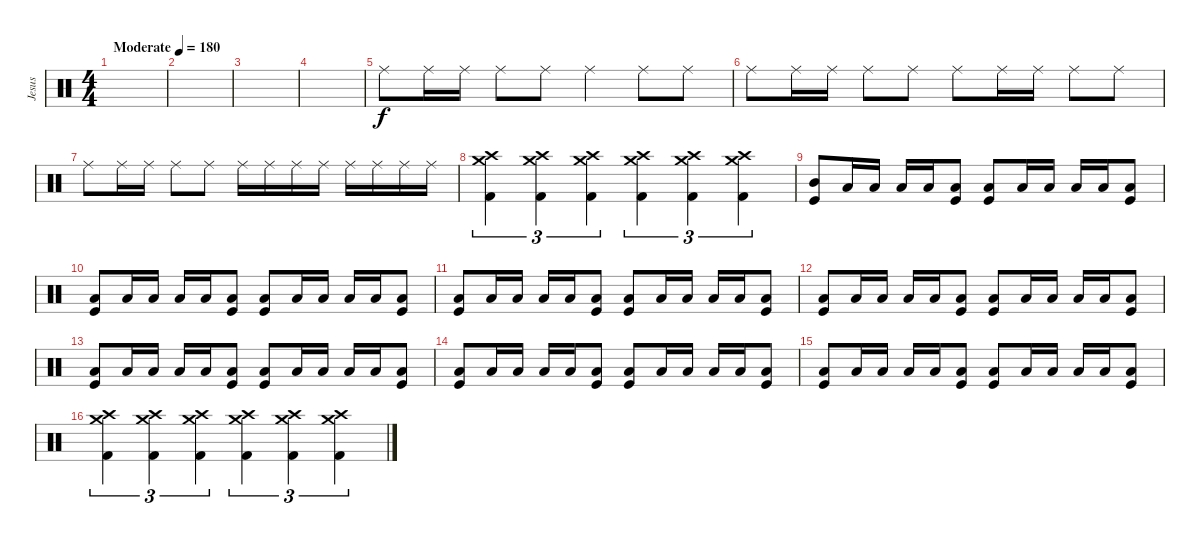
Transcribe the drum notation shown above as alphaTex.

\track ("Jesus" "Jesus") {instrument percussion}
\staff {score}
\articulation defaults
\ts (4 4)
\tempo (180 "Moderate")
\clef neutral
\ks c
|
|
|
|
"Ride (middle)".8 "Ride (middle)".16 "Ride (middle)".16 "Ride (middle)".8 "Ride (middle)".8 "Ride (middle)".4 "Ride (middle)".8 "Ride (middle)".8 |
"Ride (middle)".8 "Ride (middle)".16 "Ride (middle)".16 "Ride (middle)".8 "Ride (middle)".8 "Ride (middle)".8 "Ride (middle)".16 "Ride (middle)".16 "Ride (middle)".8 "Ride (middle)".8 |
"Ride (middle)".8 "Ride (middle)".16 "Ride (middle)".16 "Ride (middle)".8 "Ride (middle)".8 "Ride (middle)".16 "Ride (middle)".16 "Ride (middle)".16 "Ride (middle)".16 "Ride (middle)".16 "Ride (middle)".16 "Ride (middle)".16 "Ride (middle)".16 |
("Crash high (hit)" "Crash medium (hit)" "Kick (hit) 2").4{tu (3 2)} ("Crash high (hit)" "Crash medium (hit)" "Kick (hit) 2").4{tu (3 2)} ("Crash high (hit)" "Crash medium (hit)" "Kick (hit) 2").4{tu (3 2)} ("Crash high (hit)" "Crash medium (hit)" "Kick (hit) 2").4{tu (3 2)} ("Crash high (hit)" "Crash medium (hit)" "Kick (hit) 2").4{tu (3 2)} ("Crash high (hit)" "Crash medium (hit)" "Kick (hit) 2").4{tu (3 2)} |
("Mid Tom (hit)" "Kick (hit)").8 "Low Tom (hit)".16 "Low Tom (hit)".16 "Low Tom (hit)".16 "Low Tom (hit)".16 ("Low Tom (hit)" "Kick (hit)").8 ("Low Tom (hit)" "Kick (hit)").8 "Low Tom (hit)".16 "Low Tom (hit)".16 "Low Tom (hit)".16 "Low Tom (hit)".16 ("Low Tom (hit)" "Kick (hit)").8 |
("Low Tom (hit)" "Kick (hit)").8 "Low Tom (hit)".16 "Low Tom (hit)".16 "Low Tom (hit)".16 "Low Tom (hit)".16 ("Low Tom (hit)" "Kick (hit)").8 ("Low Tom (hit)" "Kick (hit)").8 "Low Tom (hit)".16 "Low Tom (hit)".16 "Low Tom (hit)".16 "Low Tom (hit)".16 ("Low Tom (hit)" "Kick (hit)").8 |
("Low Tom (hit)" "Kick (hit)").8 "Low Tom (hit)".16 "Low Tom (hit)".16 "Low Tom (hit)".16 "Low Tom (hit)".16 ("Low Tom (hit)" "Kick (hit)").8 ("Low Tom (hit)" "Kick (hit)").8 "Low Tom (hit)".16 "Low Tom (hit)".16 "Low Tom (hit)".16 "Low Tom (hit)".16 ("Low Tom (hit)" "Kick (hit)").8 |
("Low Tom (hit)" "Kick (hit)").8 "Low Tom (hit)".16 "Low Tom (hit)".16 "Low Tom (hit)".16 "Low Tom (hit)".16 ("Low Tom (hit)" "Kick (hit)").8 ("Low Tom (hit)" "Kick (hit)").8 "Low Tom (hit)".16 "Low Tom (hit)".16 "Low Tom (hit)".16 "Low Tom (hit)".16 ("Low Tom (hit)" "Kick (hit)").8 |
("Low Tom (hit)" "Kick (hit)").8 "Low Tom (hit)".16 "Low Tom (hit)".16 "Low Tom (hit)".16 "Low Tom (hit)".16 ("Low Tom (hit)" "Kick (hit)").8 ("Low Tom (hit)" "Kick (hit)").8 "Low Tom (hit)".16 "Low Tom (hit)".16 "Low Tom (hit)".16 "Low Tom (hit)".16 ("Low Tom (hit)" "Kick (hit)").8 |
("Low Tom (hit)" "Kick (hit)").8 "Low Tom (hit)".16 "Low Tom (hit)".16 "Low Tom (hit)".16 "Low Tom (hit)".16 ("Low Tom (hit)" "Kick (hit)").8 ("Low Tom (hit)" "Kick (hit)").8 "Low Tom (hit)".16 "Low Tom (hit)".16 "Low Tom (hit)".16 "Low Tom (hit)".16 ("Low Tom (hit)" "Kick (hit)").8 |
("Low Tom (hit)" "Kick (hit)").8 "Low Tom (hit)".16 "Low Tom (hit)".16 "Low Tom (hit)".16 "Low Tom (hit)".16 ("Low Tom (hit)" "Kick (hit)").8 ("Low Tom (hit)" "Kick (hit)").8 "Low Tom (hit)".16 "Low Tom (hit)".16 "Low Tom (hit)".16 "Low Tom (hit)".16 ("Low Tom (hit)" "Kick (hit)").8 |
("Crash high (hit)" "Crash medium (hit)" "Kick (hit) 2").4{tu (3 2)} ("Crash high (hit)" "Crash medium (hit)" "Kick (hit) 2").4{tu (3 2)} ("Crash high (hit)" "Crash medium (hit)" "Kick (hit) 2").4{tu (3 2)} ("Crash high (hit)" "Crash medium (hit)" "Kick (hit) 2").4{tu (3 2)} ("Crash high (hit)" "Crash medium (hit)" "Kick (hit) 2").4{tu (3 2)} ("Crash high (hit)" "Crash medium (hit)" "Kick (hit) 2").4{tu (3 2)}
